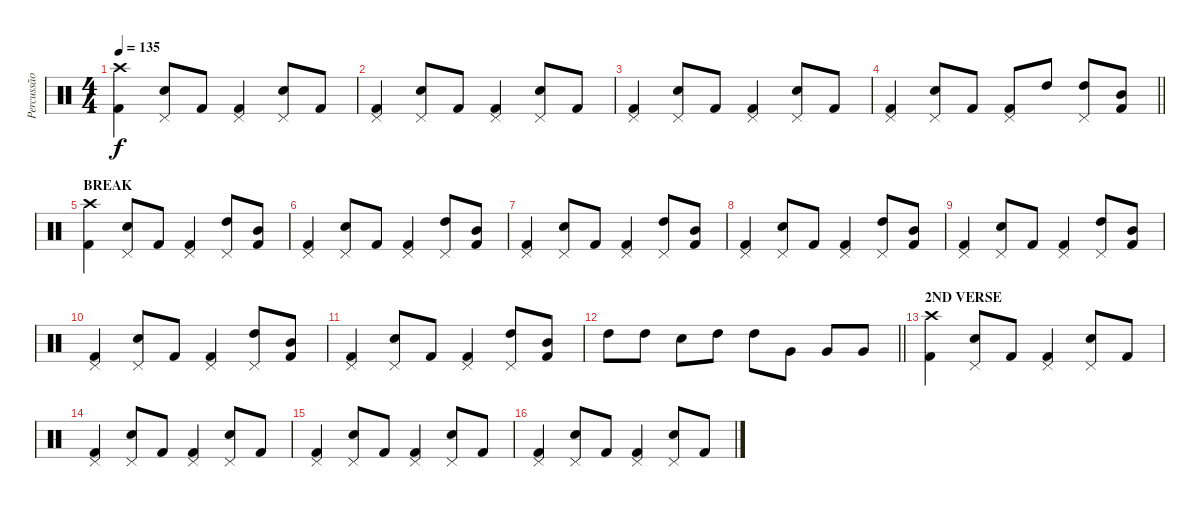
\track ("Percussão" "Percussão") {instrument percussion}
\staff {score}
\articulation defaults
\ts (4 4)
\tempo 135
\clef neutral
\ks c
("Crash high (hit)" "Kick (hit) 2").4{dy f} ("Pedal Hi-Hat (hit)" "Snare (hit) 2").8 "Kick (hit) 2".8 ("Pedal Hi-Hat (hit)" "Kick (hit) 2").4 ("Pedal Hi-Hat (hit)" "Snare (hit) 2").8 "Kick (hit) 2".8 |
("Pedal Hi-Hat (hit)" "Kick (hit) 2").4 ("Pedal Hi-Hat (hit)" "Snare (hit) 2").8 "Kick (hit) 2".8 ("Pedal Hi-Hat (hit)" "Kick (hit) 2").4 ("Pedal Hi-Hat (hit)" "Snare (hit) 2").8 "Kick (hit) 2".8 |
("Pedal Hi-Hat (hit)" "Kick (hit) 2").4 ("Pedal Hi-Hat (hit)" "Snare (hit) 2").8 "Kick (hit) 2".8 ("Pedal Hi-Hat (hit)" "Kick (hit) 2").4 ("Pedal Hi-Hat (hit)" "Snare (hit) 2").8 "Kick (hit) 2".8 |
\barLineRight lightlight
("Pedal Hi-Hat (hit)" "Kick (hit) 2").4 ("Pedal Hi-Hat (hit)" "Snare (hit) 2").8 "Kick (hit) 2".8 ("Pedal Hi-Hat (hit)" "Kick (hit) 2").8 "High Tom (hit)".8 ("Pedal Hi-Hat (hit)" "High Tom (hit)").8 ("Mid Tom (hit)" "Kick (hit) 2").8 |
\section ("" "BREAK")
("Crash high (hit)" "Kick (hit) 2").4 ("Pedal Hi-Hat (hit)" "Snare (hit) 2").8 "Kick (hit) 2".8 ("Pedal Hi-Hat (hit)" "Kick (hit) 2").4 ("Pedal Hi-Hat (hit)" "High Tom (hit)").8 ("Mid Tom (hit)" "Kick (hit) 2").8 |
("Pedal Hi-Hat (hit)" "Kick (hit) 2").4 ("Pedal Hi-Hat (hit)" "Snare (hit) 2").8 "Kick (hit) 2".8 ("Pedal Hi-Hat (hit)" "Kick (hit) 2").4 ("Pedal Hi-Hat (hit)" "High Tom (hit)").8 ("Mid Tom (hit)" "Kick (hit) 2").8 |
("Pedal Hi-Hat (hit)" "Kick (hit) 2").4 ("Pedal Hi-Hat (hit)" "Snare (hit) 2").8 "Kick (hit) 2".8 ("Pedal Hi-Hat (hit)" "Kick (hit) 2").4 ("Pedal Hi-Hat (hit)" "High Tom (hit)").8 ("Mid Tom (hit)" "Kick (hit) 2").8 |
("Pedal Hi-Hat (hit)" "Kick (hit) 2").4 ("Pedal Hi-Hat (hit)" "Snare (hit) 2").8 "Kick (hit) 2".8 ("Pedal Hi-Hat (hit)" "Kick (hit) 2").4 ("Pedal Hi-Hat (hit)" "High Tom (hit)").8 ("Mid Tom (hit)" "Kick (hit) 2").8 |
("Pedal Hi-Hat (hit)" "Kick (hit) 2").4 ("Pedal Hi-Hat (hit)" "Snare (hit) 2").8 "Kick (hit) 2".8 ("Pedal Hi-Hat (hit)" "Kick (hit) 2").4 ("Pedal Hi-Hat (hit)" "High Tom (hit)").8 ("Mid Tom (hit)" "Kick (hit) 2").8 |
("Pedal Hi-Hat (hit)" "Kick (hit) 2").4 ("Pedal Hi-Hat (hit)" "Snare (hit) 2").8 "Kick (hit) 2".8 ("Pedal Hi-Hat (hit)" "Kick (hit) 2").4 ("Pedal Hi-Hat (hit)" "High Tom (hit)").8 ("Mid Tom (hit)" "Kick (hit) 2").8 |
("Pedal Hi-Hat (hit)" "Kick (hit) 2").4 ("Pedal Hi-Hat (hit)" "Snare (hit) 2").8 "Kick (hit) 2".8 ("Pedal Hi-Hat (hit)" "Kick (hit) 2").4 ("Pedal Hi-Hat (hit)" "High Tom (hit)").8 ("Mid Tom (hit)" "Kick (hit) 2").8 |
\barLineRight lightlight "High Tom (hit)".8 "High Tom (hit)".8 "Snare (hit) 2".8 "High Tom (hit)".8 "High Tom (hit)".8 "Very Low Tom (hit)".8 "Very Low Tom (hit)".8 "Very Low Tom (hit)".8
|
\section ("" "2ND VERSE")
("Crash high (hit)" "Kick (hit) 2").4 ("Pedal Hi-Hat (hit)" "Snare (hit) 2").8 "Kick (hit) 2".8 ("Pedal Hi-Hat (hit)" "Kick (hit) 2").4 ("Pedal Hi-Hat (hit)" "Snare (hit) 2").8 "Kick (hit) 2".8 |
("Pedal Hi-Hat (hit)" "Kick (hit) 2").4 ("Pedal Hi-Hat (hit)" "Snare (hit) 2").8 "Kick (hit) 2".8 ("Pedal Hi-Hat (hit)" "Kick (hit) 2").4 ("Pedal Hi-Hat (hit)" "Snare (hit) 2").8 "Kick (hit) 2".8 |
("Pedal Hi-Hat (hit)" "Kick (hit) 2").4 ("Pedal Hi-Hat (hit)" "Snare (hit) 2").8 "Kick (hit) 2".8 ("Pedal Hi-Hat (hit)" "Kick (hit) 2").4 ("Pedal Hi-Hat (hit)" "Snare (hit) 2").8 "Kick (hit) 2".8 |
("Pedal Hi-Hat (hit)" "Kick (hit) 2").4 ("Pedal Hi-Hat (hit)" "Snare (hit) 2").8 "Kick (hit) 2".8 ("Pedal Hi-Hat (hit)" "Kick (hit) 2").4 ("Pedal Hi-Hat (hit)" "Snare (hit) 2").8 "Kick (hit) 2".8
